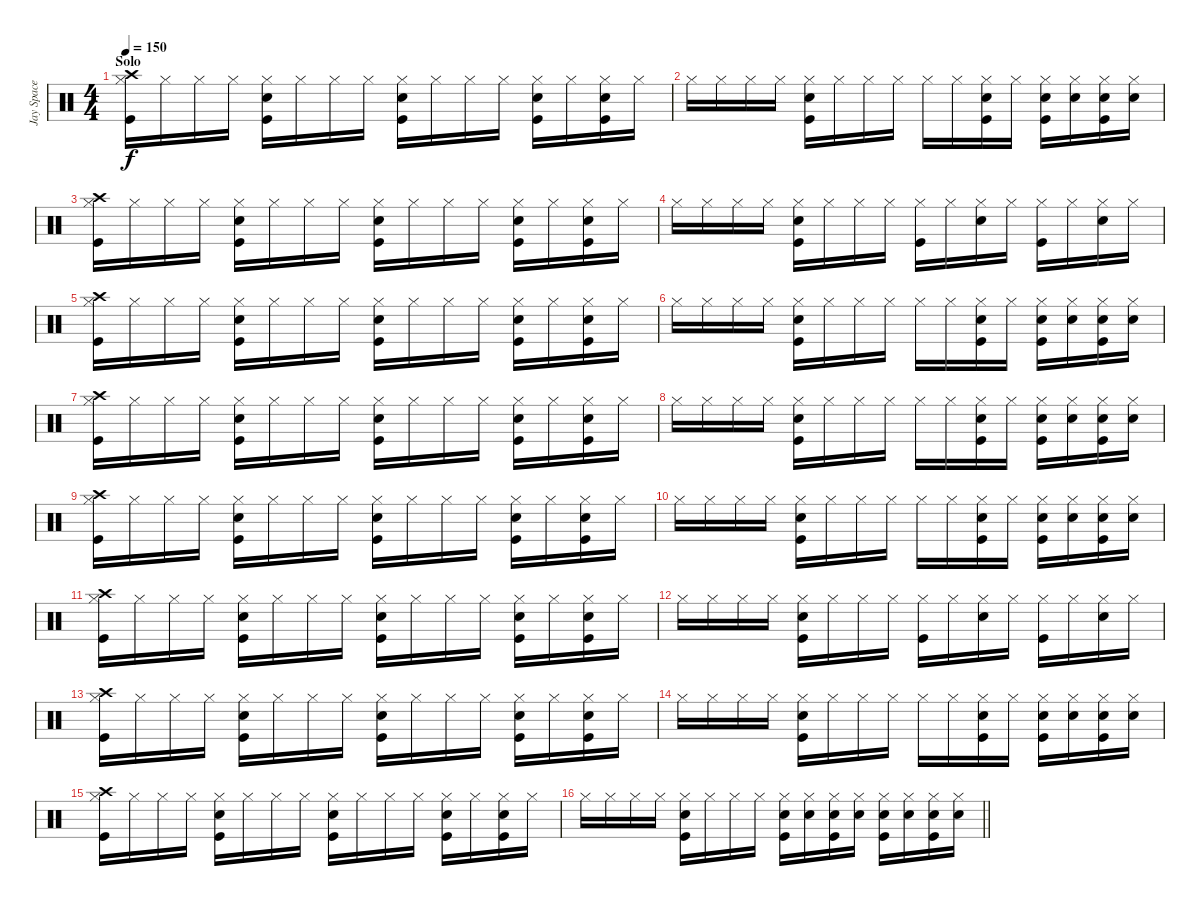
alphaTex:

\track ("Jay Space - Drums" "Jay Space ") {instrument percussion}
\staff {score}
\articulation defaults
\ts (4 4)
\section ("" "Solo")
\tempo 150
\clef neutral
\ks c
("Hi-Hat (closed)" "Kick (hit)" "Crash high (hit)").16{dy f} "Hi-Hat (closed)".16 "Hi-Hat (closed)".16 "Hi-Hat (closed)".16 ("Hi-Hat (closed)" "Snare (hit) 2" "Kick (hit)").16 "Hi-Hat (closed)".16 "Hi-Hat (closed)".16 "Hi-Hat (closed)".16 ("Hi-Hat (closed)" "Snare (hit) 2" "Kick (hit)").16 "Hi-Hat (closed)".16 "Hi-Hat (closed)".16 "Hi-Hat (closed)".16 ("Hi-Hat (closed)" "Snare (hit) 2" "Kick (hit)").16 "Hi-Hat (closed)".16 ("Hi-Hat (closed)" "Snare (hit) 2" "Kick (hit)").16 "Hi-Hat (closed)".16 |
"Hi-Hat (closed)".16 "Hi-Hat (closed)".16 "Hi-Hat (closed)".16 "Hi-Hat (closed)".16 ("Hi-Hat (closed)" "Snare (hit) 2" "Kick (hit)").16 "Hi-Hat (closed)".16 "Hi-Hat (closed)".16 "Hi-Hat (closed)".16 "Hi-Hat (closed)".16 "Hi-Hat (closed)".16 ("Hi-Hat (closed)" "Snare (hit) 2" "Kick (hit)").16 "Hi-Hat (closed)".16 ("Hi-Hat (closed)" "Snare (hit) 2" "Kick (hit)").16 ("Hi-Hat (closed)" "Snare (hit) 2").16 ("Hi-Hat (closed)" "Snare (hit) 2" "Kick (hit)").16 ("Hi-Hat (closed)" "Snare (hit) 2").16 |
("Hi-Hat (closed)" "Kick (hit)" "Crash high (hit)").16 "Hi-Hat (closed)".16 "Hi-Hat (closed)".16 "Hi-Hat (closed)".16 ("Hi-Hat (closed)" "Snare (hit) 2" "Kick (hit)").16 "Hi-Hat (closed)".16 "Hi-Hat (closed)".16 "Hi-Hat (closed)".16 ("Hi-Hat (closed)" "Snare (hit) 2" "Kick (hit)").16 "Hi-Hat (closed)".16 "Hi-Hat (closed)".16 "Hi-Hat (closed)".16 ("Hi-Hat (closed)" "Snare (hit) 2" "Kick (hit)").16 "Hi-Hat (closed)".16 ("Hi-Hat (closed)" "Snare (hit) 2" "Kick (hit)").16 "Hi-Hat (closed)".16 |
"Hi-Hat (closed)".16 "Hi-Hat (closed)".16 "Hi-Hat (closed)".16 "Hi-Hat (closed)".16 ("Hi-Hat (closed)" "Snare (hit) 2" "Kick (hit)").16 "Hi-Hat (closed)".16 "Hi-Hat (closed)".16 "Hi-Hat (closed)".16 ("Hi-Hat (closed)" "Kick (hit)").16 "Hi-Hat (closed)".16 ("Hi-Hat (closed)" "Snare (hit) 2").16 "Hi-Hat (closed)".16 ("Hi-Hat (closed)" "Kick (hit)").16 "Hi-Hat (closed)".16 ("Hi-Hat (closed)" "Snare (hit) 2").16 "Hi-Hat (closed)".16 |
("Hi-Hat (closed)" "Kick (hit)" "Crash high (hit)").16 "Hi-Hat (closed)".16 "Hi-Hat (closed)".16 "Hi-Hat (closed)".16 ("Hi-Hat (closed)" "Snare (hit) 2" "Kick (hit)").16 "Hi-Hat (closed)".16 "Hi-Hat (closed)".16 "Hi-Hat (closed)".16 ("Hi-Hat (closed)" "Snare (hit) 2" "Kick (hit)").16 "Hi-Hat (closed)".16 "Hi-Hat (closed)".16 "Hi-Hat (closed)".16 ("Hi-Hat (closed)" "Snare (hit) 2" "Kick (hit)").16 "Hi-Hat (closed)".16 ("Hi-Hat (closed)" "Snare (hit) 2" "Kick (hit)").16 "Hi-Hat (closed)".16 |
"Hi-Hat (closed)".16 "Hi-Hat (closed)".16 "Hi-Hat (closed)".16 "Hi-Hat (closed)".16 ("Hi-Hat (closed)" "Snare (hit) 2" "Kick (hit)").16 "Hi-Hat (closed)".16 "Hi-Hat (closed)".16 "Hi-Hat (closed)".16 "Hi-Hat (closed)".16 "Hi-Hat (closed)".16 ("Hi-Hat (closed)" "Snare (hit) 2" "Kick (hit)").16 "Hi-Hat (closed)".16 ("Hi-Hat (closed)" "Snare (hit) 2" "Kick (hit)").16 ("Hi-Hat (closed)" "Snare (hit) 2").16 ("Hi-Hat (closed)" "Snare (hit) 2" "Kick (hit)").16 ("Hi-Hat (closed)" "Snare (hit) 2").16 |
("Hi-Hat (closed)" "Kick (hit)" "Crash high (hit)").16 "Hi-Hat (closed)".16 "Hi-Hat (closed)".16 "Hi-Hat (closed)".16 ("Hi-Hat (closed)" "Snare (hit) 2" "Kick (hit)").16 "Hi-Hat (closed)".16 "Hi-Hat (closed)".16 "Hi-Hat (closed)".16 ("Hi-Hat (closed)" "Snare (hit) 2" "Kick (hit)").16 "Hi-Hat (closed)".16 "Hi-Hat (closed)".16 "Hi-Hat (closed)".16 ("Hi-Hat (closed)" "Snare (hit) 2" "Kick (hit)").16 "Hi-Hat (closed)".16 ("Hi-Hat (closed)" "Snare (hit) 2" "Kick (hit)").16 "Hi-Hat (closed)".16 |
"Hi-Hat (closed)".16 "Hi-Hat (closed)".16 "Hi-Hat (closed)".16 "Hi-Hat (closed)".16 ("Hi-Hat (closed)" "Snare (hit) 2" "Kick (hit)").16 "Hi-Hat (closed)".16 "Hi-Hat (closed)".16 "Hi-Hat (closed)".16 "Hi-Hat (closed)".16 "Hi-Hat (closed)".16 ("Hi-Hat (closed)" "Snare (hit) 2" "Kick (hit)").16 "Hi-Hat (closed)".16 ("Hi-Hat (closed)" "Snare (hit) 2" "Kick (hit)").16 ("Hi-Hat (closed)" "Snare (hit) 2").16 ("Hi-Hat (closed)" "Snare (hit) 2" "Kick (hit)").16 ("Hi-Hat (closed)" "Snare (hit) 2").16 |
("Hi-Hat (closed)" "Kick (hit)" "Crash high (hit)").16 "Hi-Hat (closed)".16 "Hi-Hat (closed)".16 "Hi-Hat (closed)".16 ("Hi-Hat (closed)" "Snare (hit) 2" "Kick (hit)").16 "Hi-Hat (closed)".16 "Hi-Hat (closed)".16 "Hi-Hat (closed)".16 ("Hi-Hat (closed)" "Snare (hit) 2" "Kick (hit)").16 "Hi-Hat (closed)".16 "Hi-Hat (closed)".16 "Hi-Hat (closed)".16 ("Hi-Hat (closed)" "Snare (hit) 2" "Kick (hit)").16 "Hi-Hat (closed)".16 ("Hi-Hat (closed)" "Snare (hit) 2" "Kick (hit)").16 "Hi-Hat (closed)".16 |
"Hi-Hat (closed)".16 "Hi-Hat (closed)".16 "Hi-Hat (closed)".16 "Hi-Hat (closed)".16 ("Hi-Hat (closed)" "Snare (hit) 2" "Kick (hit)").16 "Hi-Hat (closed)".16 "Hi-Hat (closed)".16 "Hi-Hat (closed)".16 "Hi-Hat (closed)".16 "Hi-Hat (closed)".16 ("Hi-Hat (closed)" "Snare (hit) 2" "Kick (hit)").16 "Hi-Hat (closed)".16 ("Hi-Hat (closed)" "Snare (hit) 2" "Kick (hit)").16 ("Hi-Hat (closed)" "Snare (hit) 2").16 ("Hi-Hat (closed)" "Snare (hit) 2" "Kick (hit)").16 ("Hi-Hat (closed)" "Snare (hit) 2").16 |
("Hi-Hat (closed)" "Kick (hit)" "Crash high (hit)").16 "Hi-Hat (closed)".16 "Hi-Hat (closed)".16 "Hi-Hat (closed)".16 ("Hi-Hat (closed)" "Snare (hit) 2" "Kick (hit)").16 "Hi-Hat (closed)".16 "Hi-Hat (closed)".16 "Hi-Hat (closed)".16 ("Hi-Hat (closed)" "Snare (hit) 2" "Kick (hit)").16 "Hi-Hat (closed)".16 "Hi-Hat (closed)".16 "Hi-Hat (closed)".16 ("Hi-Hat (closed)" "Snare (hit) 2" "Kick (hit)").16 "Hi-Hat (closed)".16 ("Hi-Hat (closed)" "Snare (hit) 2" "Kick (hit)").16 "Hi-Hat (closed)".16 |
"Hi-Hat (closed)".16 "Hi-Hat (closed)".16 "Hi-Hat (closed)".16 "Hi-Hat (closed)".16 ("Hi-Hat (closed)" "Snare (hit) 2" "Kick (hit)").16 "Hi-Hat (closed)".16 "Hi-Hat (closed)".16 "Hi-Hat (closed)".16 ("Hi-Hat (closed)" "Kick (hit)").16 "Hi-Hat (closed)".16 ("Hi-Hat (closed)" "Snare (hit) 2").16 "Hi-Hat (closed)".16 ("Hi-Hat (closed)" "Kick (hit)").16 "Hi-Hat (closed)".16 ("Hi-Hat (closed)" "Snare (hit) 2").16 "Hi-Hat (closed)".16 |
("Hi-Hat (closed)" "Kick (hit)" "Crash high (hit)").16 "Hi-Hat (closed)".16 "Hi-Hat (closed)".16 "Hi-Hat (closed)".16 ("Hi-Hat (closed)" "Snare (hit) 2" "Kick (hit)").16 "Hi-Hat (closed)".16 "Hi-Hat (closed)".16 "Hi-Hat (closed)".16 ("Hi-Hat (closed)" "Snare (hit) 2" "Kick (hit)").16 "Hi-Hat (closed)".16 "Hi-Hat (closed)".16 "Hi-Hat (closed)".16 ("Hi-Hat (closed)" "Snare (hit) 2" "Kick (hit)").16 "Hi-Hat (closed)".16 ("Hi-Hat (closed)" "Snare (hit) 2" "Kick (hit)").16 "Hi-Hat (closed)".16 |
"Hi-Hat (closed)".16 "Hi-Hat (closed)".16 "Hi-Hat (closed)".16 "Hi-Hat (closed)".16 ("Hi-Hat (closed)" "Snare (hit) 2" "Kick (hit)").16 "Hi-Hat (closed)".16 "Hi-Hat (closed)".16 "Hi-Hat (closed)".16 "Hi-Hat (closed)".16 "Hi-Hat (closed)".16 ("Hi-Hat (closed)" "Snare (hit) 2" "Kick (hit)").16 "Hi-Hat (closed)".16 ("Hi-Hat (closed)" "Snare (hit) 2" "Kick (hit)").16 ("Hi-Hat (closed)" "Snare (hit) 2").16 ("Hi-Hat (closed)" "Snare (hit) 2" "Kick (hit)").16 ("Hi-Hat (closed)" "Snare (hit) 2").16 |
("Hi-Hat (closed)" "Kick (hit)" "Crash high (hit)").16 "Hi-Hat (closed)".16 "Hi-Hat (closed)".16 "Hi-Hat (closed)".16 ("Hi-Hat (closed)" "Snare (hit) 2" "Kick (hit)").16 "Hi-Hat (closed)".16 "Hi-Hat (closed)".16 "Hi-Hat (closed)".16 ("Hi-Hat (closed)" "Snare (hit) 2" "Kick (hit)").16 "Hi-Hat (closed)".16 "Hi-Hat (closed)".16 "Hi-Hat (closed)".16 ("Hi-Hat (closed)" "Snare (hit) 2" "Kick (hit)").16 "Hi-Hat (closed)".16 ("Hi-Hat (closed)" "Snare (hit) 2" "Kick (hit)").16 "Hi-Hat (closed)".16 |
\barLineRight lightlight "Hi-Hat (closed)".16 "Hi-Hat (closed)".16 "Hi-Hat (closed)".16 "Hi-Hat (closed)".16
("Hi-Hat (closed)" "Snare (hit) 2" "Kick (hit)").16 "Hi-Hat (closed)".16 "Hi-Hat (closed)".16 "Hi-Hat (closed)".16 ("Hi-Hat (closed)" "Snare (hit) 2" "Kick (hit)").16 ("Hi-Hat (closed)" "Snare (hit) 2").16 ("Hi-Hat (closed)" "Snare (hit) 2" "Kick (hit)").16 ("Hi-Hat (closed)" "Snare (hit) 2").16 ("Hi-Hat (closed)" "Snare (hit) 2" "Kick (hit)").16 ("Hi-Hat (closed)" "Snare (hit) 2").16 ("Hi-Hat (closed)" "Snare (hit) 2" "Kick (hit)").16 ("Hi-Hat (closed)" "Snare (hit) 2").16
